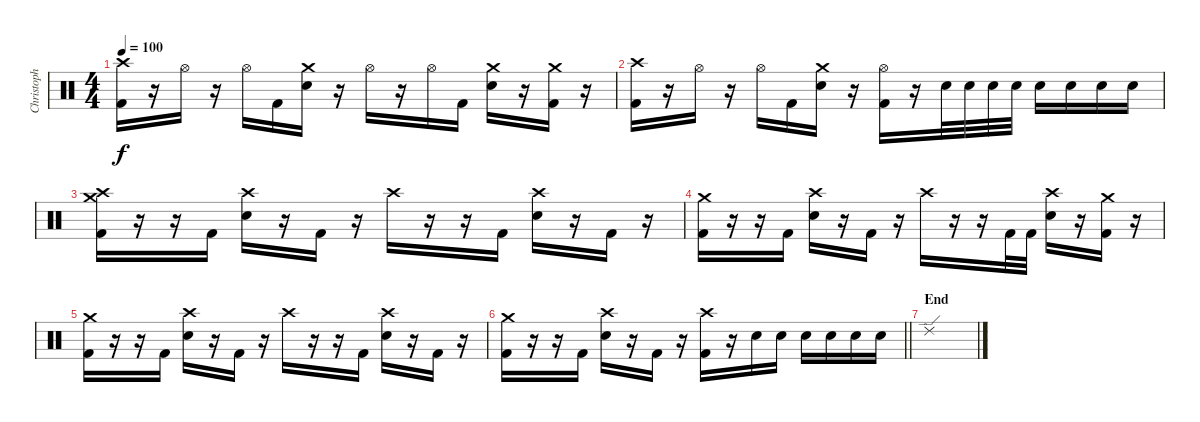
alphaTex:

\track ("Christoph Schneider" "Christoph ") {instrument percussion}
\staff {score}
\articulation defaults
\ts (4 4)
\tempo 100
\clef neutral
\ks c
("Crash high (hit)" "Kick (hit) 2").16{dy f} r.16 "Hi-Hat (open)".16 r.16 "Hi-Hat (open)".16 "Kick (hit) 2".16 ("Crash medium (hit)" "Snare (hit) 2").16 r.16 "Hi-Hat (open)".16 r.16 "Hi-Hat (open)".16 "Kick (hit) 2".16 ("Crash medium (hit)" "Snare (hit) 2").16 r.16 ("Crash medium (hit)" "Kick (hit) 2").16 r.16 |
("Crash high (hit)" "Kick (hit) 2").16 r.16 "Hi-Hat (open)".16 r.16 "Hi-Hat (open)".16 "Kick (hit) 2".16 ("Crash medium (hit)" "Snare (hit) 2").16 r.16 ("Hi-Hat (open)" "Kick (hit) 2").16 r.16 "Snare (hit) 2".32 "Snare (hit) 2".32 "Snare (hit) 2".32 "Snare (hit) 2".32 "Snare (hit) 2".16 "Snare (hit) 2".16 "Snare (hit) 2".16 "Snare (hit) 2".16 |
("Crash high (hit)" "Crash medium (hit)" "Kick (hit) 2").16 r.16 r.16 "Kick (hit) 2".16 ("Crash high (hit)" "Snare (hit) 2").16 r.16 "Kick (hit) 2".16 r.16 "Crash high (hit)".16 r.16 r.16 "Kick (hit) 2".16 ("Crash high (hit)" "Snare (hit) 2").16 r.16 "Kick (hit) 2".16 r.16 |
("Crash medium (hit)" "Kick (hit) 2").16 r.16 r.16 "Kick (hit) 2".16 ("Crash high (hit)" "Snare (hit) 2").16 r.16 "Kick (hit) 2".16 r.16 "Crash high (hit)".16 r.16 r.16 "Kick (hit) 2".32 "Kick (hit) 2".32 ("Crash high (hit)" "Snare (hit) 2").16 r.16 ("Crash medium (hit)" "Kick (hit) 2").16 r.16 |
("Crash medium (hit)" "Kick (hit) 2").16 r.16 r.16 "Kick (hit) 2".16 ("Crash high (hit)" "Snare (hit) 2").16 r.16 "Kick (hit) 2".16 r.16 "Crash high (hit)".16 r.16 r.16 "Kick (hit) 2".16 ("Crash high (hit)" "Snare (hit) 2").16 r.16 "Kick (hit) 2".16 r.16 |
\barLineRight lightlight
("Crash medium (hit)" "Kick (hit) 2").16 r.16 r.16 "Kick (hit) 2".16 ("Crash high (hit)" "Snare (hit) 2").16 r.16 "Kick (hit) 2".16 r.16 ("Crash high (hit)" "Kick (hit) 2").16 r.16 "Snare (hit) 2".16 "Snare (hit) 2".16 "Snare (hit) 2".16 "Snare (hit) 2".16 "Snare (hit) 2".16 "Snare (hit) 2".16 |
\section ("" "End")
"Ride (edge) 2".1
